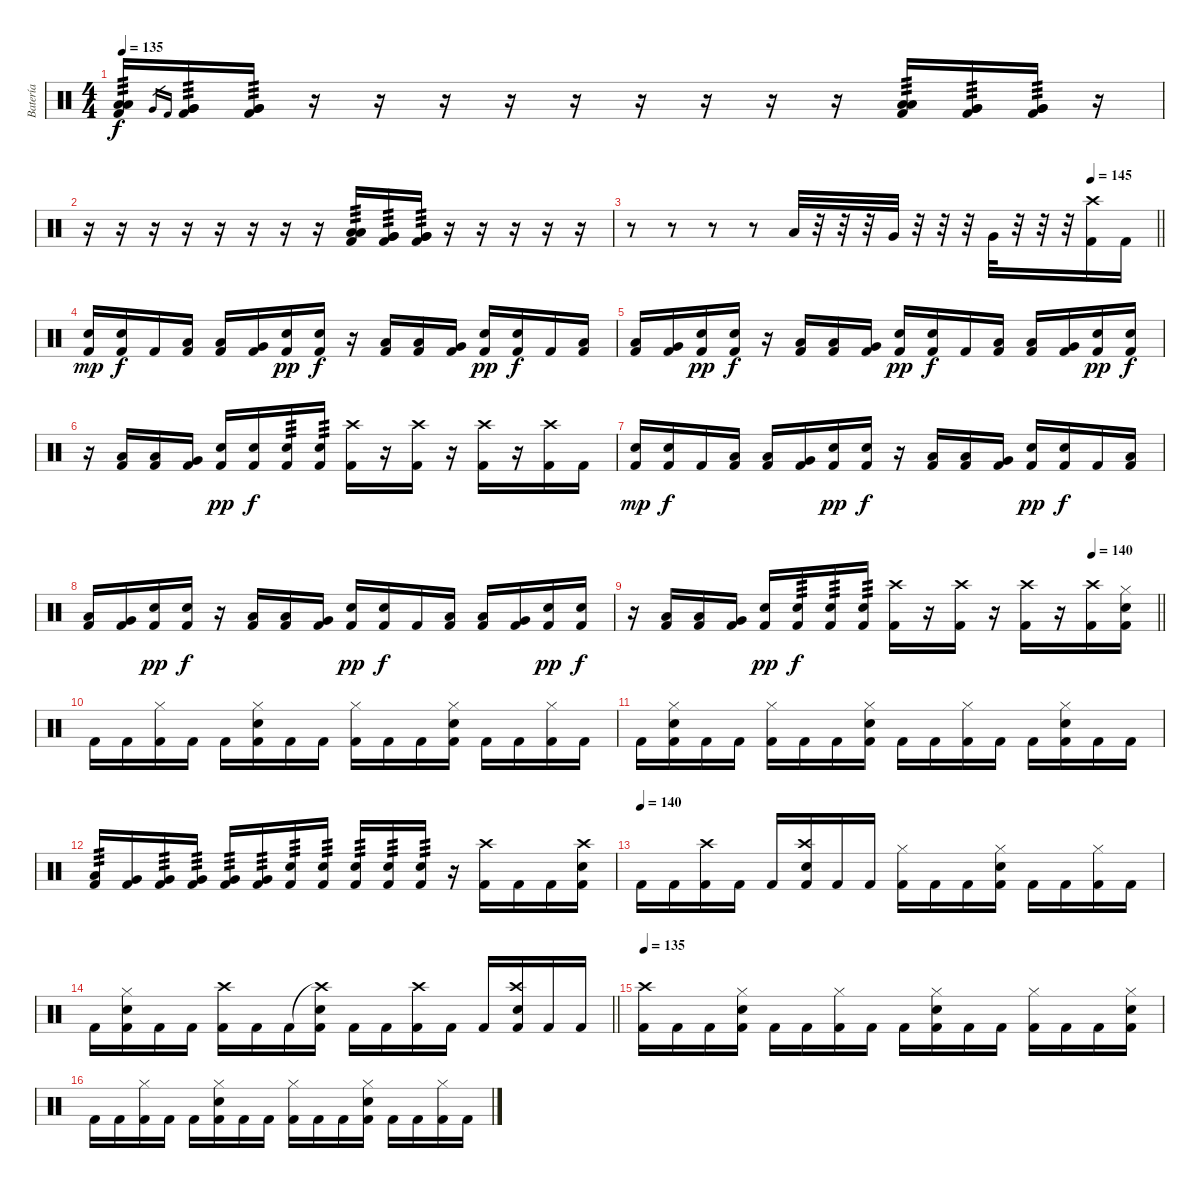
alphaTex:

\track ("Batería" "Batería") {instrument percussion}
\staff {score}
\articulation defaults
\ts (4 4)
\tempo 135
\clef neutral
\ks c
("Low Tom (hit)" "Low Tom (hit)" "Kick (hit) 2").16{tp 3 dy f} "Very Low Tom (hit)".16{gr} "Kick (hit) 2".16{gr} ("Very Low Tom (hit)" "Very Low Tom (hit)" "Kick (hit) 2").16{tp 3} ("Very Low Tom (hit)" "Very Low Tom (hit)" "Kick (hit) 2").16{tp 3} r.16 r.16 r.16 r.16 r.16 r.16 r.16 r.16 r.16 ("Low Tom (hit)" "Low Tom (hit)" "Kick (hit) 2").16{tp 3} ("Very Low Tom (hit)" "Very Low Tom (hit)" "Kick (hit) 2").16{tp 3} ("Very Low Tom (hit)" "Very Low Tom (hit)" "Kick (hit) 2").16{tp 3} r.16 |
r.16 r.16 r.16 r.16 r.16 r.16 r.16 r.16 ("Low Tom (hit)" "Low Tom (hit)" "Kick (hit) 2").16{tp 3} ("Very Low Tom (hit)" "Very Low Tom (hit)" "Kick (hit) 2").16{tp 3} ("Very Low Tom (hit)" "Very Low Tom (hit)" "Kick (hit) 2").16{tp 3} r.16 r.16 r.16 r.16 r.16 |
\tempo (145 0.875)
\barLineRight lightlight
r.8 r.8 r.8 r.8 "Low Tom (hit)".32 r.32 r.32 r.32 "Very Low Tom (hit)".32 r.32 r.32 r.32 "Very Low Tom (hit)".32 r.32 r.32 r.32 ("Crash high (hit)" "Kick (hit) 2").16 "Kick (hit) 2".16 |
("Snare (hit) 2" "Kick (hit) 2").16{dy mp} ("Snare (hit) 2" "Kick (hit) 2").16{dy f} "Kick (hit) 2".16 ("Low Tom (hit)" "Kick (hit) 2").16 ("Low Tom (hit)" "Kick (hit) 2").16 ("Very Low Tom (hit)" "Kick (hit) 2").16 ("Snare (hit) 2" "Kick (hit) 2").16{dy pp} ("Snare (hit) 2" "Kick (hit) 2").16{dy f} r.16 ("Low Tom (hit)" "Kick (hit) 2").16 ("Low Tom (hit)" "Kick (hit) 2").16 ("Very Low Tom (hit)" "Kick (hit) 2").16 ("Snare (hit) 2" "Kick (hit) 2").16{dy pp} ("Snare (hit) 2" "Kick (hit) 2").16{dy f} "Kick (hit) 2".16 ("Low Tom (hit)" "Kick (hit) 2").16 |
("Low Tom (hit)" "Kick (hit) 2").16 ("Very Low Tom (hit)" "Kick (hit) 2").16 ("Snare (hit) 2" "Kick (hit) 2").16{dy pp} ("Snare (hit) 2" "Kick (hit) 2").16{dy f} r.16 ("Low Tom (hit)" "Kick (hit) 2").16 ("Low Tom (hit)" "Kick (hit) 2").16 ("Very Low Tom (hit)" "Kick (hit) 2").16 ("Snare (hit) 2" "Kick (hit) 2").16{dy pp} ("Snare (hit) 2" "Kick (hit) 2").16{dy f} "Kick (hit) 2".16 ("Low Tom (hit)" "Kick (hit) 2").16 ("Low Tom (hit)" "Kick (hit) 2").16 ("Very Low Tom (hit)" "Kick (hit) 2").16 ("Snare (hit) 2" "Kick (hit) 2").16{dy pp} ("Snare (hit) 2" "Kick (hit) 2").16{dy f} |
r.16 ("Low Tom (hit)" "Kick (hit) 2").16 ("Low Tom (hit)" "Kick (hit) 2").16 ("Very Low Tom (hit)" "Kick (hit) 2").16 ("Snare (hit) 2" "Kick (hit) 2").16{dy pp} ("Snare (hit) 2" "Kick (hit) 2").16{dy f} ("Snare (hit) 2" "Kick (hit) 2").16{tp 3} ("Snare (hit) 2" "Kick (hit) 2").16{tp 3} ("Crash high (hit)" "Kick (hit) 2").16 r.16 ("Crash high (hit)" "Kick (hit) 2").16 r.16 ("Crash high (hit)" "Kick (hit) 2").16 r.16 ("Crash high (hit)" "Kick (hit) 2").16 "Kick (hit) 2".16 |
("Snare (hit) 2" "Kick (hit) 2").16{dy mp} ("Snare (hit) 2" "Kick (hit) 2").16{dy f} "Kick (hit) 2".16 ("Low Tom (hit)" "Kick (hit) 2").16 ("Low Tom (hit)" "Kick (hit) 2").16 ("Very Low Tom (hit)" "Kick (hit) 2").16 ("Snare (hit) 2" "Kick (hit) 2").16{dy pp} ("Snare (hit) 2" "Kick (hit) 2").16{dy f} r.16 ("Low Tom (hit)" "Kick (hit) 2").16 ("Low Tom (hit)" "Kick (hit) 2").16 ("Very Low Tom (hit)" "Kick (hit) 2").16 ("Snare (hit) 2" "Kick (hit) 2").16{dy pp} ("Snare (hit) 2" "Kick (hit) 2").16{dy f} "Kick (hit) 2".16 ("Low Tom (hit)" "Kick (hit) 2").16 |
("Low Tom (hit)" "Kick (hit) 2").16 ("Very Low Tom (hit)" "Kick (hit) 2").16 ("Snare (hit) 2" "Kick (hit) 2").16{dy pp} ("Snare (hit) 2" "Kick (hit) 2").16{dy f} r.16 ("Low Tom (hit)" "Kick (hit) 2").16 ("Low Tom (hit)" "Kick (hit) 2").16 ("Very Low Tom (hit)" "Kick (hit) 2").16 ("Snare (hit) 2" "Kick (hit) 2").16{dy pp} ("Snare (hit) 2" "Kick (hit) 2").16{dy f} "Kick (hit) 2".16 ("Low Tom (hit)" "Kick (hit) 2").16 ("Low Tom (hit)" "Kick (hit) 2").16 ("Very Low Tom (hit)" "Kick (hit) 2").16 ("Snare (hit) 2" "Kick (hit) 2").16{dy pp} ("Snare (hit) 2" "Kick (hit) 2").16{dy f} |
\tempo (140 0.875)
\barLineRight lightlight
r.16 ("Low Tom (hit)" "Kick (hit) 2").16 ("Low Tom (hit)" "Kick (hit) 2").16 ("Very Low Tom (hit)" "Kick (hit) 2").16 ("Snare (hit) 2" "Kick (hit) 2").16{dy pp} ("Snare (hit) 2" "Kick (hit) 2").16{tp 3 dy f} ("Snare (hit) 2" "Kick (hit) 2").16{tp 3} ("Snare (hit) 2" "Kick (hit) 2").16{tp 3} ("Crash high (hit)" "Kick (hit) 2").16 r.16 ("Crash high (hit)" "Kick (hit) 2").16 r.16 ("Crash high (hit)" "Kick (hit) 2").16 r.16 ("Crash high (hit)" "Kick (hit) 2").16 ("Hi-Hat (closed)" "Snare (hit) 2" "Kick (hit) 2").16 |
"Kick (hit) 2".16 "Kick (hit) 2".16 ("Hi-Hat (closed)" "Kick (hit) 2").16 "Kick (hit) 2".16 "Kick (hit) 2".16 ("Hi-Hat (closed)" "Snare (hit) 2" "Kick (hit) 2").16 "Kick (hit) 2".16 "Kick (hit) 2".16 ("Hi-Hat (closed)" "Kick (hit) 2").16 "Kick (hit) 2".16 "Kick (hit) 2".16 ("Hi-Hat (closed)" "Snare (hit) 2" "Kick (hit) 2").16 "Kick (hit) 2".16 "Kick (hit) 2".16 ("Hi-Hat (closed)" "Kick (hit) 2").16 "Kick (hit) 2".16 |
"Kick (hit) 2".16 ("Hi-Hat (closed)" "Snare (hit) 2" "Kick (hit) 2").16 "Kick (hit) 2".16 "Kick (hit) 2".16 ("Hi-Hat (closed)" "Kick (hit) 2").16 "Kick (hit) 2".16 "Kick (hit) 2".16 ("Hi-Hat (closed)" "Snare (hit) 2" "Kick (hit) 2").16 "Kick (hit) 2".16 "Kick (hit) 2".16 ("Hi-Hat (closed)" "Kick (hit) 2").16 "Kick (hit) 2".16 "Kick (hit) 2".16 ("Hi-Hat (closed)" "Snare (hit) 2" "Kick (hit) 2").16 "Kick (hit) 2".16 "Kick (hit) 2".16 |
("Low Tom (hit)" "Kick (hit) 2").16{tp 3} ("Very Low Tom (hit)" "Kick (hit) 2").16 ("Very Low Tom (hit)" "Kick (hit) 2").16{tp 3} ("Very Low Tom (hit)" "Kick (hit) 2").16{tp 3} ("Very Low Tom (hit)" "Kick (hit) 2").16{tp 3} ("Very Low Tom (hit)" "Kick (hit) 2").16{tp 3} ("Snare (hit) 2" "Kick (hit) 2").16{tp 3} ("Snare (hit) 2" "Kick (hit) 2").16{tp 3} ("Snare (hit) 2" "Kick (hit) 2").16{tp 3} ("Snare (hit) 2" "Kick (hit) 2").16{tp 3} ("Snare (hit) 2" "Kick (hit) 2").16{tp 3} r.16 ("Crash high (hit)" "Kick (hit) 2").16 "Kick (hit) 2".16 "Kick (hit) 2".16 ("Crash high (hit)" "Snare (hit) 2" "Kick (hit) 2").16 |
\tempo (140)
"Kick (hit) 2".16 "Kick (hit) 2".16 ("Crash high (hit)" "Kick (hit) 2").16 "Kick (hit) 2".16 "Kick (hit) 2".16 ("Crash high (hit)" "Snare (hit) 2" "Kick (hit) 2").16 "Kick (hit) 2".16 "Kick (hit) 2".16 ("Hi-Hat (closed)" "Kick (hit) 2").16 "Kick (hit) 2".16 "Kick (hit) 2".16 ("Hi-Hat (closed)" "Snare (hit) 2" "Kick (hit) 2").16 "Kick (hit) 2".16 "Kick (hit) 2".16 ("Hi-Hat (closed)" "Kick (hit) 2").16 "Kick (hit) 2".16 |
\barLineRight lightlight "Kick (hit) 2".16
("Hi-Hat (closed)" "Snare (hit) 2" "Kick (hit) 2").16 "Kick (hit) 2".16 "Kick (hit) 2".16 ("Crash high (hit)" "Kick (hit) 2").16 "Kick (hit) 2".16 "Kick (hit) 2".16 ("Crash high (hit)"{t} "Snare (hit) 2" "Kick (hit) 2").16 "Kick (hit) 2".16 "Kick (hit) 2".16 ("Crash high (hit)" "Kick (hit) 2").16 "Kick (hit) 2".16 "Kick (hit) 2".16 ("Crash high (hit)" "Snare (hit) 2" "Kick (hit) 2").16 "Kick (hit) 2".16 "Kick (hit) 2".16 |
\tempo 135
("Crash high (hit)" "Kick (hit) 2").16 "Kick (hit) 2".16 "Kick (hit) 2".16 ("Hi-Hat (closed)" "Snare (hit) 2" "Kick (hit) 2").16 "Kick (hit) 2".16 "Kick (hit) 2".16 ("Hi-Hat (closed)" "Kick (hit) 2").16 "Kick (hit) 2".16 "Kick (hit) 2".16 ("Hi-Hat (closed)" "Snare (hit) 2" "Kick (hit) 2").16 "Kick (hit) 2".16 "Kick (hit) 2".16 ("Hi-Hat (closed)" "Kick (hit) 2").16 "Kick (hit) 2".16 "Kick (hit) 2".16 ("Hi-Hat (closed)" "Snare (hit) 2" "Kick (hit) 2").16 |
"Kick (hit) 2".16 "Kick (hit) 2".16 ("Hi-Hat (closed)" "Kick (hit) 2").16 "Kick (hit) 2".16 "Kick (hit) 2".16 ("Hi-Hat (closed)" "Snare (hit) 2" "Kick (hit) 2").16 "Kick (hit) 2".16 "Kick (hit) 2".16 ("Hi-Hat (closed)" "Kick (hit) 2").16 "Kick (hit) 2".16 "Kick (hit) 2".16 ("Hi-Hat (closed)" "Snare (hit) 2" "Kick (hit) 2").16 "Kick (hit) 2".16 "Kick (hit) 2".16 ("Hi-Hat (closed)" "Kick (hit) 2").16 "Kick (hit) 2".16
